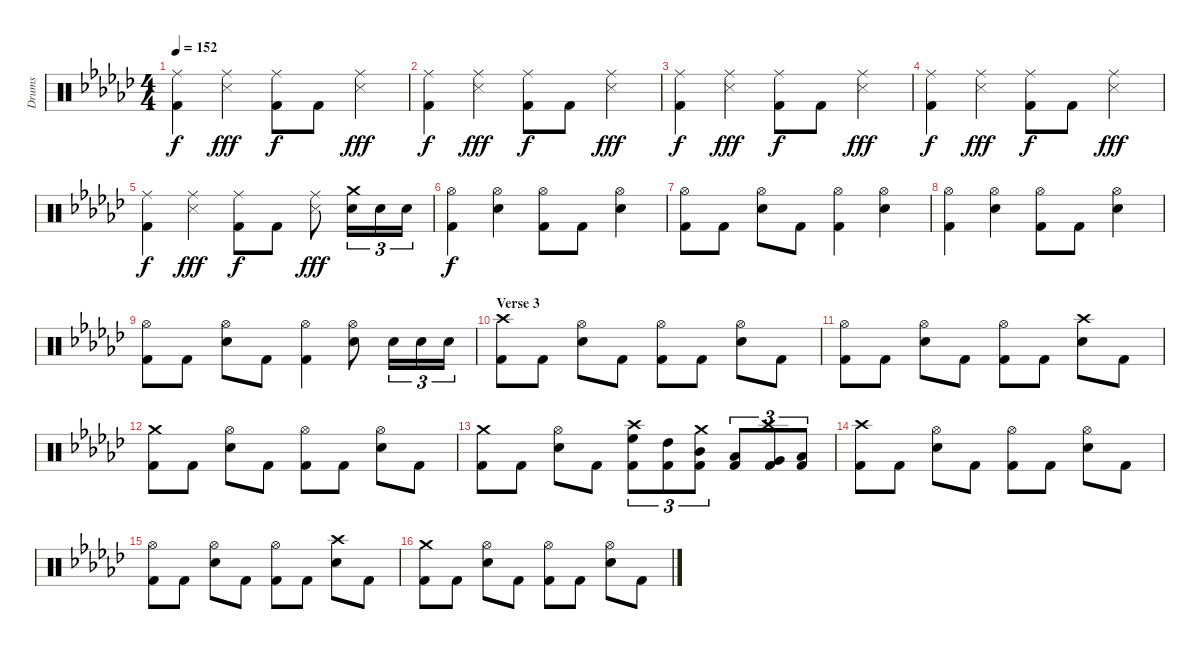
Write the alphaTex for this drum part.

\track ("Drums" "Drums") {instrument percussion}
\staff {score}
\articulation defaults
\ts (4 4)
\tempo 152
\clef neutral
\ks gb
("Ride (middle)" "Kick (hit) 2").4{dy f} ("Ride (middle)" "Snare (side stick) 3").4{dy fff} ("Ride (middle)" "Kick (hit) 2").8{dy f} "Kick (hit) 2".8 ("Ride (middle)" "Snare (side stick) 3").4{dy fff} |
("Ride (middle)" "Kick (hit) 2").4{dy f} ("Ride (middle)" "Snare (side stick) 3").4{dy fff} ("Ride (middle)" "Kick (hit) 2").8{dy f} "Kick (hit) 2".8 ("Ride (middle)" "Snare (side stick) 3").4{dy fff} |
("Ride (middle)" "Kick (hit) 2").4{dy f} ("Ride (middle)" "Snare (side stick) 3").4{dy fff} ("Ride (middle)" "Kick (hit) 2").8{dy f} "Kick (hit) 2".8 ("Ride (middle)" "Snare (side stick) 3").4{dy fff} |
("Ride (middle)" "Kick (hit) 2").4{dy f} ("Ride (middle)" "Snare (side stick) 3").4{dy fff} ("Ride (middle)" "Kick (hit) 2").8{dy f} "Kick (hit) 2".8 ("Ride (middle)" "Snare (side stick) 3").4{dy fff} |
("Ride (middle)" "Kick (hit) 2").4{dy f} ("Ride (middle)" "Snare (side stick) 3").4{dy fff} ("Ride (middle)" "Kick (hit) 2").8{dy f} "Kick (hit) 2".8 ("Ride (middle)" "Snare (side stick) 3").8{dy fff} ("Crash medium (hit)" "Electric Snare (hit)").16{tu (3 2)} "Electric Snare (hit)".16{tu (3 2)} "Electric Snare (hit)".16{tu (3 2)} |
("Hi-Hat (open)" "Kick (hit) 2").4{dy f} ("Hi-Hat (open)" "Electric Snare (hit)").4 ("Hi-Hat (open)" "Kick (hit) 2").8 "Kick (hit) 2".8 ("Hi-Hat (open)" "Electric Snare (hit)").4 |
("Hi-Hat (open)" "Kick (hit) 2").8 "Kick (hit) 2".8 ("Hi-Hat (open)" "Electric Snare (hit)").8 "Kick (hit) 2".8 ("Hi-Hat (open)" "Kick (hit) 2").4 ("Hi-Hat (open)" "Electric Snare (hit)").4 |
("Hi-Hat (open)" "Kick (hit) 2").4 ("Hi-Hat (open)" "Electric Snare (hit)").4 ("Hi-Hat (open)" "Kick (hit) 2").8 "Kick (hit) 2".8 ("Hi-Hat (open)" "Electric Snare (hit)").4 |
("Hi-Hat (open)" "Kick (hit) 2").8 "Kick (hit) 2".8 ("Hi-Hat (open)" "Electric Snare (hit)").8 "Kick (hit) 2".8 ("Hi-Hat (open)" "Kick (hit) 2").4 ("Hi-Hat (open)" "Electric Snare (hit)").8 "Electric Snare (hit)".16{tu (3 2)} "Electric Snare (hit)".16{tu (3 2)} "Electric Snare (hit)".16{tu (3 2)} |
\section ("" "Verse 3")
("Crash high (hit)" "Kick (hit) 2").8 "Kick (hit) 2".8 ("Hi-Hat (open)" "Electric Snare (hit)").8 "Kick (hit) 2".8 ("Hi-Hat (open)" "Kick (hit) 2").8 "Kick (hit) 2".8 ("Hi-Hat (open)" "Electric Snare (hit)").8 "Kick (hit) 2".8 |
("Hi-Hat (open)" "Kick (hit) 2").8 "Kick (hit) 2".8 ("Hi-Hat (open)" "Electric Snare (hit)").8 "Kick (hit) 2".8 ("Hi-Hat (open)" "Kick (hit) 2").8 "Kick (hit) 2".8 ("Crash high (hit)" "Electric Snare (hit)").8 "Kick (hit) 2".8 |
("Crash medium (hit)" "Kick (hit) 2").8 "Kick (hit) 2".8 ("Hi-Hat (open)" "Electric Snare (hit)").8 "Kick (hit) 2".8 ("Hi-Hat (open)" "Kick (hit) 2").8 "Kick (hit) 2".8 ("Hi-Hat (open)" "Electric Snare (hit)").8 "Kick (hit) 2".8 |
("Crash medium (hit)" "Kick (hit) 2").8 "Kick (hit) 2".8 ("Hi-Hat (open)" "Electric Snare (hit)").8 "Kick (hit) 2".8 ("Crash high (hit)" "High Floor Tom (hit)" "Kick (hit) 2").8{tu (3 2)} ("High Tom (hit)" "Kick (hit) 2").8{tu (3 2)} ("Crash medium (hit)" "Mid Tom (hit)" "Kick (hit) 2").8{tu (3 2)} ("Low Tom (hit)" "Kick (hit) 2").8{tu (3 2)} ("Crash high (hit)" "Very Low Tom (hit)" "Kick (hit) 2").8{tu (3 2)} ("Low Floor Tom (hit)" "Kick (hit) 2").8{tu (3 2)} |
("Crash high (hit)" "Kick (hit) 2").8 "Kick (hit) 2".8 ("Hi-Hat (open)" "Electric Snare (hit)").8 "Kick (hit) 2".8 ("Hi-Hat (open)" "Kick (hit) 2").8 "Kick (hit) 2".8 ("Hi-Hat (open)" "Electric Snare (hit)").8 "Kick (hit) 2".8 |
("Hi-Hat (open)" "Kick (hit) 2").8 "Kick (hit) 2".8 ("Hi-Hat (open)" "Electric Snare (hit)").8 "Kick (hit) 2".8 ("Hi-Hat (open)" "Kick (hit) 2").8 "Kick (hit) 2".8 ("Crash high (hit)" "Electric Snare (hit)").8 "Kick (hit) 2".8 |
("Crash medium (hit)" "Kick (hit) 2").8 "Kick (hit) 2".8 ("Hi-Hat (open)" "Electric Snare (hit)").8 "Kick (hit) 2".8 ("Hi-Hat (open)" "Kick (hit) 2").8 "Kick (hit) 2".8 ("Hi-Hat (open)" "Electric Snare (hit)").8 "Kick (hit) 2".8
